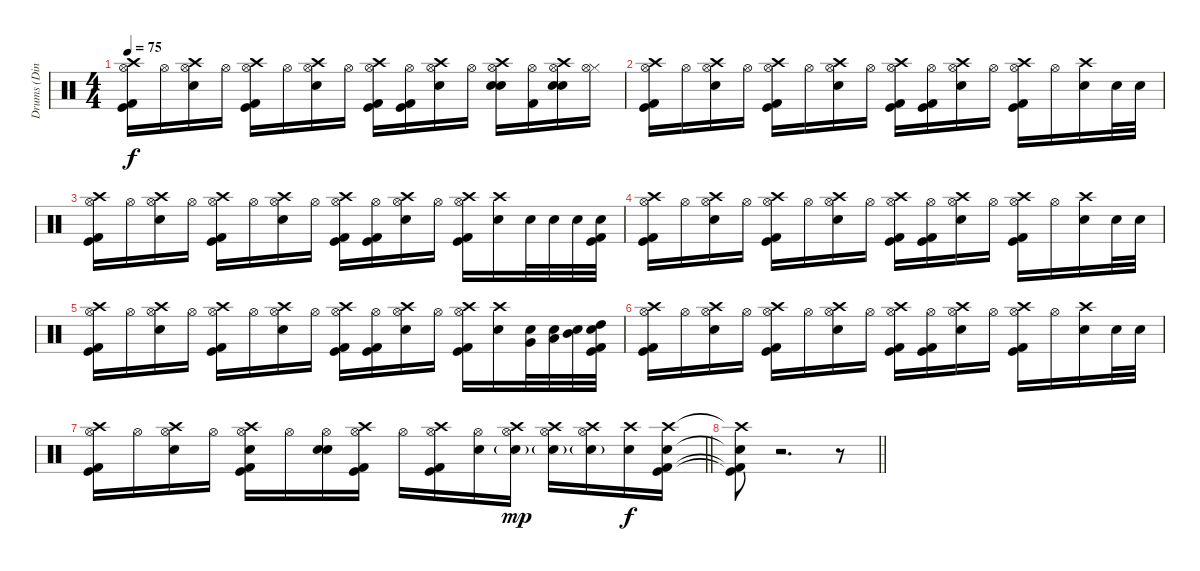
\track ("Drums (Din-din)" "Drums (Din") {instrument percussion}
\staff {score}
\articulation defaults
\ts (4 4)
\tempo 75
\clef neutral
\ks c
("Crash high (hit)" "Hi-Hat (open)" "Kick (hit)" "Kick (hit) 2").16{dy f} "Hi-Hat (open)".16 ("Crash high (hit)" "Hi-Hat (open)" "Snare (hit) 2").16 "Hi-Hat (open)".16 ("Crash high (hit)" "Hi-Hat (open)" "Kick (hit)" "Kick (hit) 2").16 "Hi-Hat (open)".16 ("Crash high (hit)" "Hi-Hat (open)" "Snare (hit) 2").16 "Hi-Hat (open)".16 ("Crash high (hit)" "Hi-Hat (open)" "Kick (hit)" "Kick (hit) 2").16 ("Hi-Hat (open)" "Kick (hit)" "Kick (hit) 2").16 ("Crash high (hit)" "Hi-Hat (open)" "Snare (hit) 2").16 "Hi-Hat (open)".16 ("Crash high (hit)" "Hi-Hat (open)" "Snare (hit) 2" "Electric Snare (hit)").16 ("Hi-Hat (open)" "Kick (hit) 2").16 ("Crash high (hit)" "Hi-Hat (open)" "Snare (hit) 2" "Electric Snare (hit)").16 ("Hi-Hat (closed)" "Hi-Hat (open)").16 |
("Crash high (hit)" "Hi-Hat (open)" "Kick (hit)" "Kick (hit) 2").16 "Hi-Hat (open)".16 ("Crash high (hit)" "Hi-Hat (open)" "Snare (hit) 2").16 "Hi-Hat (open)".16 ("Crash high (hit)" "Hi-Hat (open)" "Kick (hit)" "Kick (hit) 2").16 "Hi-Hat (open)".16 ("Crash high (hit)" "Hi-Hat (open)" "Snare (hit) 2").16 "Hi-Hat (open)".16 ("Crash high (hit)" "Hi-Hat (open)" "Kick (hit)" "Kick (hit) 2").16 ("Hi-Hat (open)" "Kick (hit)" "Kick (hit) 2").16 ("Crash high (hit)" "Hi-Hat (open)" "Snare (hit) 2").16 "Hi-Hat (open)".16 ("Crash high (hit)" "Hi-Hat (open)" "Kick (hit)" "Kick (hit) 2").16 "Hi-Hat (open)".16 ("Crash high (hit)" "Snare (hit) 2").16 "Snare (hit) 2".32 "Snare (hit) 2".32 |
("Crash high (hit)" "Hi-Hat (open)" "Kick (hit)" "Kick (hit) 2").16 "Hi-Hat (open)".16 ("Crash high (hit)" "Hi-Hat (open)" "Snare (hit) 2").16 "Hi-Hat (open)".16 ("Crash high (hit)" "Hi-Hat (open)" "Kick (hit)" "Kick (hit) 2").16 "Hi-Hat (open)".16 ("Crash high (hit)" "Hi-Hat (open)" "Snare (hit) 2").16 "Hi-Hat (open)".16 ("Crash high (hit)" "Hi-Hat (open)" "Kick (hit)" "Kick (hit) 2").16 ("Hi-Hat (open)" "Kick (hit)" "Kick (hit) 2").16 ("Crash high (hit)" "Hi-Hat (open)" "Snare (hit) 2").16 "Hi-Hat (open)".16 ("Crash high (hit)" "Hi-Hat (open)" "Kick (hit)" "Kick (hit) 2").16 ("Crash high (hit)" "Snare (hit) 2").16 "Snare (hit) 2".32 "Snare (hit) 2".32 "Snare (hit) 2".32 ("Snare (hit) 2" "Kick (hit)" "Kick (hit) 2").32 |
("Crash high (hit)" "Hi-Hat (open)" "Kick (hit)" "Kick (hit) 2").16 "Hi-Hat (open)".16 ("Crash high (hit)" "Hi-Hat (open)" "Snare (hit) 2").16 "Hi-Hat (open)".16 ("Crash high (hit)" "Hi-Hat (open)" "Kick (hit)" "Kick (hit) 2").16 "Hi-Hat (open)".16 ("Crash high (hit)" "Hi-Hat (open)" "Snare (hit) 2").16 "Hi-Hat (open)".16 ("Crash high (hit)" "Hi-Hat (open)" "Kick (hit)" "Kick (hit) 2").16 ("Hi-Hat (open)" "Kick (hit)" "Kick (hit) 2").16 ("Crash high (hit)" "Hi-Hat (open)" "Snare (hit) 2").16 "Hi-Hat (open)".16 ("Crash high (hit)" "Hi-Hat (open)" "Kick (hit)" "Kick (hit) 2").16 "Hi-Hat (open)".16 ("Crash high (hit)" "Snare (hit) 2").16 "Snare (hit) 2".32 "Snare (hit) 2".32 |
("Crash high (hit)" "Hi-Hat (open)" "Kick (hit)" "Kick (hit) 2").16 "Hi-Hat (open)".16 ("Crash high (hit)" "Hi-Hat (open)" "Snare (hit) 2").16 "Hi-Hat (open)".16 ("Crash high (hit)" "Hi-Hat (open)" "Kick (hit)" "Kick (hit) 2").16 "Hi-Hat (open)".16 ("Crash high (hit)" "Hi-Hat (open)" "Snare (hit) 2").16 "Hi-Hat (open)".16 ("Crash high (hit)" "Hi-Hat (open)" "Kick (hit)" "Kick (hit) 2").16 ("Hi-Hat (open)" "Kick (hit)" "Kick (hit) 2").16 ("Crash high (hit)" "Hi-Hat (open)" "Snare (hit) 2").16 "Hi-Hat (open)".16 ("Crash high (hit)" "Hi-Hat (open)" "Kick (hit)" "Kick (hit) 2").16 ("Crash high (hit)" "Snare (hit) 2").16 ("Very Low Tom (hit)" "Snare (hit) 2").32 ("Low Tom (hit)" "Snare (hit) 2").32 ("Mid Tom (hit)" "Snare (hit) 2").32 ("High Tom (hit)" "Snare (hit) 2" "Kick (hit)" "Kick (hit) 2").32 |
("Crash high (hit)" "Hi-Hat (open)" "Kick (hit)" "Kick (hit) 2").16 "Hi-Hat (open)".16 ("Crash high (hit)" "Hi-Hat (open)" "Snare (hit) 2").16 "Hi-Hat (open)".16 ("Crash high (hit)" "Hi-Hat (open)" "Kick (hit)" "Kick (hit) 2").16 "Hi-Hat (open)".16 ("Crash high (hit)" "Hi-Hat (open)" "Snare (hit) 2").16 "Hi-Hat (open)".16 ("Crash high (hit)" "Hi-Hat (open)" "Kick (hit)" "Kick (hit) 2").16 ("Hi-Hat (open)" "Kick (hit)" "Kick (hit) 2").16 ("Crash high (hit)" "Hi-Hat (open)" "Snare (hit) 2").16 "Hi-Hat (open)".16 ("Crash high (hit)" "Hi-Hat (open)" "Kick (hit)" "Kick (hit) 2").16 "Hi-Hat (open)".16 ("Crash high (hit)" "Snare (hit) 2").16 "Snare (hit) 2".32 "Snare (hit) 2".32 |
\barLineRight lightlight
("Crash high (hit)" "Hi-Hat (open)" "Kick (hit)" "Kick (hit) 2").16 "Hi-Hat (open)".16 ("Crash high (hit)" "Hi-Hat (open)" "Snare (hit) 2").16 "Hi-Hat (open)".16 ("Crash high (hit)" "Hi-Hat (open)" "Snare (hit) 2" "Kick (hit)" "Kick (hit) 2").16 "Hi-Hat (open)".16 ("Hi-Hat (open)" "Snare (hit) 2" "Electric Snare (hit)").16 ("Crash high (hit)" "Hi-Hat (open)" "Kick (hit)" "Kick (hit) 2").16 "Hi-Hat (open)".16 ("Crash high (hit)" "Hi-Hat (open)" "Kick (hit)" "Kick (hit) 2").16 ("Hi-Hat (open)" "Snare (hit) 2").16 ("Crash high (hit)" "Hi-Hat (open)" "Snare (hit) 2"{g}).16{dy mp} ("Crash high (hit)" "Hi-Hat (open)" "Snare (hit) 2"{g}).16 ("Crash high (hit)" "Hi-Hat (open)" "Snare (hit) 2"{g}).16 ("Crash high (hit)" "Snare (hit) 2").16{dy f} ("Crash high (hit)" "Snare (hit) 2" "Kick (hit)" "Kick (hit) 2").16 |
\barLineRight lightlight
("Crash high (hit)"{t} "Snare (hit) 2"{t} "Kick (hit)"{t} "Kick (hit) 2"{t}).8 r.2{d} r.8
